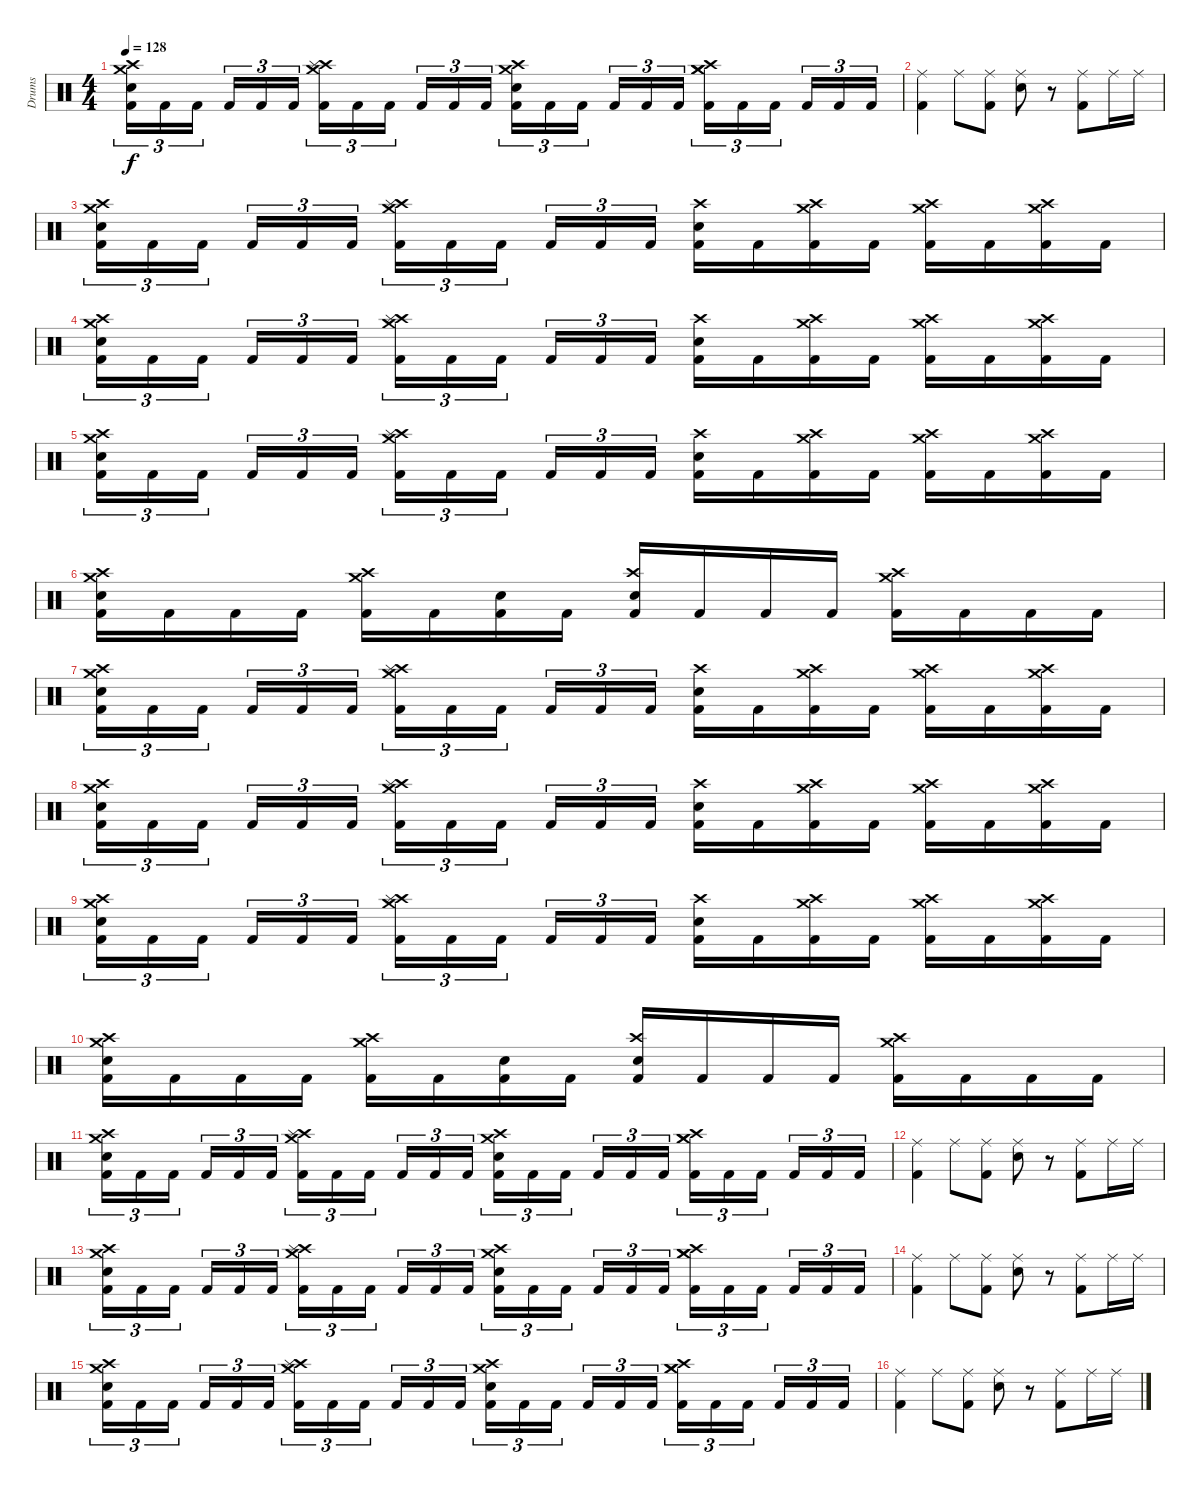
\track ("Drums" "Drums") {instrument percussion}
\staff {score}
\articulation defaults
\ts (4 4)
\tempo 128
\clef neutral
\ks c
("Crash medium (hit)" "Snare (hit) 2" "Crash high (hit)" "Kick (hit) 2").16{tu (3 2) dy f} "Kick (hit) 2".16{tu (3 2)} "Kick (hit) 2".16{tu (3 2)} "Kick (hit) 2".16{tu (3 2)} "Kick (hit) 2".16{tu (3 2)} "Kick (hit) 2".16{tu (3 2)} ("Crash medium (hit)" "Crash high (hit)" "Splash (hit)" "Kick (hit) 2").16{tu (3 2)} "Kick (hit) 2".16{tu (3 2)} "Kick (hit) 2".16{tu (3 2)} "Kick (hit) 2".16{tu (3 2)} "Kick (hit) 2".16{tu (3 2)} "Kick (hit) 2".16{tu (3 2)} ("Crash high (hit)" "Snare (hit) 2" "Crash medium (hit)" "Kick (hit) 2").16{tu (3 2)} "Kick (hit) 2".16{tu (3 2)} "Kick (hit) 2".16{tu (3 2)} "Kick (hit) 2".16{tu (3 2)} "Kick (hit) 2".16{tu (3 2)} "Kick (hit) 2".16{tu (3 2)} ("Crash high (hit)" "Crash medium (hit)" "Crash medium (hit)" "Kick (hit) 2").16{tu (3 2)} "Kick (hit) 2".16{tu (3 2)} "Kick (hit) 2".16{tu (3 2)} "Kick (hit) 2".16{tu (3 2)} "Kick (hit) 2".16{tu (3 2)} "Kick (hit) 2".16{tu (3 2)} |
("Ride (middle)" "Kick (hit) 2").4 "Ride (middle)".8 ("Ride (middle)" "Kick (hit) 2").8 ("Ride (middle)" "Snare (hit) 2").8 r.8 ("Ride (middle)" "Kick (hit) 2").8 "Ride (middle)".16 "Ride (middle)".16 |
("Crash medium (hit)" "Snare (hit) 2" "Crash high (hit)" "Kick (hit) 2").16{tu (3 2)} "Kick (hit) 2".16{tu (3 2)} "Kick (hit) 2".16{tu (3 2)} "Kick (hit) 2".16{tu (3 2)} "Kick (hit) 2".16{tu (3 2)} "Kick (hit) 2".16{tu (3 2)} ("Crash medium (hit)" "Crash high (hit)" "Splash (hit)" "Kick (hit) 2").16{tu (3 2)} "Kick (hit) 2".16{tu (3 2)} "Kick (hit) 2".16{tu (3 2)} "Kick (hit) 2".16{tu (3 2)} "Kick (hit) 2".16{tu (3 2)} "Kick (hit) 2".16{tu (3 2)} ("Crash high (hit)" "Snare (hit) 2" "Kick (hit) 2").16 "Kick (hit) 2".16 ("Crash medium (hit)" "Crash high (hit)" "Kick (hit) 2").16 "Kick (hit) 2".16 ("Crash high (hit)" "Crash medium (hit)" "Kick (hit) 2").16 "Kick (hit) 2".16 ("Crash high (hit)" "Crash medium (hit)" "Kick (hit) 2").16 "Kick (hit) 2".16 |
("Crash medium (hit)" "Snare (hit) 2" "Crash high (hit)" "Kick (hit) 2").16{tu (3 2)} "Kick (hit) 2".16{tu (3 2)} "Kick (hit) 2".16{tu (3 2)} "Kick (hit) 2".16{tu (3 2)} "Kick (hit) 2".16{tu (3 2)} "Kick (hit) 2".16{tu (3 2)} ("Crash medium (hit)" "Crash high (hit)" "Splash (hit)" "Kick (hit) 2").16{tu (3 2)} "Kick (hit) 2".16{tu (3 2)} "Kick (hit) 2".16{tu (3 2)} "Kick (hit) 2".16{tu (3 2)} "Kick (hit) 2".16{tu (3 2)} "Kick (hit) 2".16{tu (3 2)} ("Crash high (hit)" "Snare (hit) 2" "Kick (hit) 2").16 "Kick (hit) 2".16 ("Crash medium (hit)" "Crash high (hit)" "Kick (hit) 2").16 "Kick (hit) 2".16 ("Crash high (hit)" "Crash medium (hit)" "Kick (hit) 2").16 "Kick (hit) 2".16 ("Crash high (hit)" "Crash medium (hit)" "Kick (hit) 2").16 "Kick (hit) 2".16 |
("Crash medium (hit)" "Snare (hit) 2" "Crash high (hit)" "Kick (hit) 2").16{tu (3 2)} "Kick (hit) 2".16{tu (3 2)} "Kick (hit) 2".16{tu (3 2)} "Kick (hit) 2".16{tu (3 2)} "Kick (hit) 2".16{tu (3 2)} "Kick (hit) 2".16{tu (3 2)} ("Crash medium (hit)" "Crash high (hit)" "Splash (hit)" "Kick (hit) 2").16{tu (3 2)} "Kick (hit) 2".16{tu (3 2)} "Kick (hit) 2".16{tu (3 2)} "Kick (hit) 2".16{tu (3 2)} "Kick (hit) 2".16{tu (3 2)} "Kick (hit) 2".16{tu (3 2)} ("Crash high (hit)" "Snare (hit) 2" "Kick (hit) 2").16 "Kick (hit) 2".16 ("Crash medium (hit)" "Crash high (hit)" "Kick (hit) 2").16 "Kick (hit) 2".16 ("Crash high (hit)" "Crash medium (hit)" "Kick (hit) 2").16 "Kick (hit) 2".16 ("Crash high (hit)" "Crash medium (hit)" "Kick (hit) 2").16 "Kick (hit) 2".16 |
("Crash medium (hit)" "Snare (hit) 2" "Crash high (hit)" "Kick (hit) 2").16 "Kick (hit) 2".16 "Kick (hit) 2".16 "Kick (hit) 2".16 ("Crash medium (hit)" "Crash high (hit)" "Kick (hit) 2").16 "Kick (hit) 2".16 ("Snare (hit) 2" "Kick (hit) 2").16 "Kick (hit) 2".16 ("Snare (hit) 2" "Crash high (hit)" "Kick (hit) 2").16 "Kick (hit) 2".16 "Kick (hit) 2".16 "Kick (hit) 2".16 ("Crash high (hit)" "Crash medium (hit)" "Kick (hit) 2").16 "Kick (hit) 2".16 "Kick (hit) 2".16 "Kick (hit) 2".16 |
("Crash medium (hit)" "Snare (hit) 2" "Crash high (hit)" "Kick (hit) 2").16{tu (3 2)} "Kick (hit) 2".16{tu (3 2)} "Kick (hit) 2".16{tu (3 2)} "Kick (hit) 2".16{tu (3 2)} "Kick (hit) 2".16{tu (3 2)} "Kick (hit) 2".16{tu (3 2)} ("Crash medium (hit)" "Crash high (hit)" "Splash (hit)" "Kick (hit) 2").16{tu (3 2)} "Kick (hit) 2".16{tu (3 2)} "Kick (hit) 2".16{tu (3 2)} "Kick (hit) 2".16{tu (3 2)} "Kick (hit) 2".16{tu (3 2)} "Kick (hit) 2".16{tu (3 2)} ("Crash high (hit)" "Snare (hit) 2" "Kick (hit) 2").16 "Kick (hit) 2".16 ("Crash medium (hit)" "Crash high (hit)" "Kick (hit) 2").16 "Kick (hit) 2".16 ("Crash high (hit)" "Crash medium (hit)" "Kick (hit) 2").16 "Kick (hit) 2".16 ("Crash high (hit)" "Crash medium (hit)" "Kick (hit) 2").16 "Kick (hit) 2".16 |
("Crash medium (hit)" "Snare (hit) 2" "Crash high (hit)" "Kick (hit) 2").16{tu (3 2)} "Kick (hit) 2".16{tu (3 2)} "Kick (hit) 2".16{tu (3 2)} "Kick (hit) 2".16{tu (3 2)} "Kick (hit) 2".16{tu (3 2)} "Kick (hit) 2".16{tu (3 2)} ("Crash medium (hit)" "Crash high (hit)" "Splash (hit)" "Kick (hit) 2").16{tu (3 2)} "Kick (hit) 2".16{tu (3 2)} "Kick (hit) 2".16{tu (3 2)} "Kick (hit) 2".16{tu (3 2)} "Kick (hit) 2".16{tu (3 2)} "Kick (hit) 2".16{tu (3 2)} ("Crash high (hit)" "Snare (hit) 2" "Kick (hit) 2").16 "Kick (hit) 2".16 ("Crash medium (hit)" "Crash high (hit)" "Kick (hit) 2").16 "Kick (hit) 2".16 ("Crash high (hit)" "Crash medium (hit)" "Kick (hit) 2").16 "Kick (hit) 2".16 ("Crash high (hit)" "Crash medium (hit)" "Kick (hit) 2").16 "Kick (hit) 2".16 |
("Crash medium (hit)" "Snare (hit) 2" "Crash high (hit)" "Kick (hit) 2").16{tu (3 2)} "Kick (hit) 2".16{tu (3 2)} "Kick (hit) 2".16{tu (3 2)} "Kick (hit) 2".16{tu (3 2)} "Kick (hit) 2".16{tu (3 2)} "Kick (hit) 2".16{tu (3 2)} ("Crash medium (hit)" "Crash high (hit)" "Splash (hit)" "Kick (hit) 2").16{tu (3 2)} "Kick (hit) 2".16{tu (3 2)} "Kick (hit) 2".16{tu (3 2)} "Kick (hit) 2".16{tu (3 2)} "Kick (hit) 2".16{tu (3 2)} "Kick (hit) 2".16{tu (3 2)} ("Crash high (hit)" "Snare (hit) 2" "Kick (hit) 2").16 "Kick (hit) 2".16 ("Crash medium (hit)" "Crash high (hit)" "Kick (hit) 2").16 "Kick (hit) 2".16 ("Crash high (hit)" "Crash medium (hit)" "Kick (hit) 2").16 "Kick (hit) 2".16 ("Crash high (hit)" "Crash medium (hit)" "Kick (hit) 2").16 "Kick (hit) 2".16 |
("Crash medium (hit)" "Snare (hit) 2" "Crash high (hit)" "Kick (hit) 2").16 "Kick (hit) 2".16 "Kick (hit) 2".16 "Kick (hit) 2".16 ("Crash medium (hit)" "Crash high (hit)" "Kick (hit) 2").16 "Kick (hit) 2".16 ("Snare (hit) 2" "Kick (hit) 2").16 "Kick (hit) 2".16 ("Snare (hit) 2" "Crash high (hit)" "Kick (hit) 2").16 "Kick (hit) 2".16 "Kick (hit) 2".16 "Kick (hit) 2".16 ("Crash high (hit)" "Crash medium (hit)" "Kick (hit) 2").16 "Kick (hit) 2".16 "Kick (hit) 2".16 "Kick (hit) 2".16 |
("Crash medium (hit)" "Snare (hit) 2" "Crash high (hit)" "Kick (hit) 2").16{tu (3 2)} "Kick (hit) 2".16{tu (3 2)} "Kick (hit) 2".16{tu (3 2)} "Kick (hit) 2".16{tu (3 2)} "Kick (hit) 2".16{tu (3 2)} "Kick (hit) 2".16{tu (3 2)} ("Crash medium (hit)" "Crash high (hit)" "Splash (hit)" "Kick (hit) 2").16{tu (3 2)} "Kick (hit) 2".16{tu (3 2)} "Kick (hit) 2".16{tu (3 2)} "Kick (hit) 2".16{tu (3 2)} "Kick (hit) 2".16{tu (3 2)} "Kick (hit) 2".16{tu (3 2)} ("Crash high (hit)" "Snare (hit) 2" "Crash medium (hit)" "Kick (hit) 2").16{tu (3 2)} "Kick (hit) 2".16{tu (3 2)} "Kick (hit) 2".16{tu (3 2)} "Kick (hit) 2".16{tu (3 2)} "Kick (hit) 2".16{tu (3 2)} "Kick (hit) 2".16{tu (3 2)} ("Crash high (hit)" "Crash medium (hit)" "Crash medium (hit)" "Kick (hit) 2").16{tu (3 2)} "Kick (hit) 2".16{tu (3 2)} "Kick (hit) 2".16{tu (3 2)} "Kick (hit) 2".16{tu (3 2)} "Kick (hit) 2".16{tu (3 2)} "Kick (hit) 2".16{tu (3 2)} |
("Ride (middle)" "Kick (hit) 2").4 "Ride (middle)".8 ("Ride (middle)" "Kick (hit) 2").8 ("Ride (middle)" "Snare (hit) 2").8 r.8 ("Ride (middle)" "Kick (hit) 2").8 "Ride (middle)".16 "Ride (middle)".16 |
("Crash medium (hit)" "Snare (hit) 2" "Crash high (hit)" "Kick (hit) 2").16{tu (3 2)} "Kick (hit) 2".16{tu (3 2)} "Kick (hit) 2".16{tu (3 2)} "Kick (hit) 2".16{tu (3 2)} "Kick (hit) 2".16{tu (3 2)} "Kick (hit) 2".16{tu (3 2)} ("Crash medium (hit)" "Crash high (hit)" "Splash (hit)" "Kick (hit) 2").16{tu (3 2)} "Kick (hit) 2".16{tu (3 2)} "Kick (hit) 2".16{tu (3 2)} "Kick (hit) 2".16{tu (3 2)} "Kick (hit) 2".16{tu (3 2)} "Kick (hit) 2".16{tu (3 2)} ("Crash high (hit)" "Snare (hit) 2" "Crash medium (hit)" "Kick (hit) 2").16{tu (3 2)} "Kick (hit) 2".16{tu (3 2)} "Kick (hit) 2".16{tu (3 2)} "Kick (hit) 2".16{tu (3 2)} "Kick (hit) 2".16{tu (3 2)} "Kick (hit) 2".16{tu (3 2)} ("Crash high (hit)" "Crash medium (hit)" "Crash medium (hit)" "Kick (hit) 2").16{tu (3 2)} "Kick (hit) 2".16{tu (3 2)} "Kick (hit) 2".16{tu (3 2)} "Kick (hit) 2".16{tu (3 2)} "Kick (hit) 2".16{tu (3 2)} "Kick (hit) 2".16{tu (3 2)} |
("Ride (middle)" "Kick (hit) 2").4 "Ride (middle)".8 ("Ride (middle)" "Kick (hit) 2").8 ("Ride (middle)" "Snare (hit) 2").8 r.8 ("Ride (middle)" "Kick (hit) 2").8 "Ride (middle)".16 "Ride (middle)".16 |
("Crash medium (hit)" "Snare (hit) 2" "Crash high (hit)" "Kick (hit) 2").16{tu (3 2)} "Kick (hit) 2".16{tu (3 2)} "Kick (hit) 2".16{tu (3 2)} "Kick (hit) 2".16{tu (3 2)} "Kick (hit) 2".16{tu (3 2)} "Kick (hit) 2".16{tu (3 2)} ("Crash medium (hit)" "Crash high (hit)" "Splash (hit)" "Kick (hit) 2").16{tu (3 2)} "Kick (hit) 2".16{tu (3 2)} "Kick (hit) 2".16{tu (3 2)} "Kick (hit) 2".16{tu (3 2)} "Kick (hit) 2".16{tu (3 2)} "Kick (hit) 2".16{tu (3 2)} ("Crash high (hit)" "Snare (hit) 2" "Crash medium (hit)" "Kick (hit) 2").16{tu (3 2)} "Kick (hit) 2".16{tu (3 2)} "Kick (hit) 2".16{tu (3 2)} "Kick (hit) 2".16{tu (3 2)} "Kick (hit) 2".16{tu (3 2)} "Kick (hit) 2".16{tu (3 2)} ("Crash high (hit)" "Crash medium (hit)" "Crash medium (hit)" "Kick (hit) 2").16{tu (3 2)} "Kick (hit) 2".16{tu (3 2)} "Kick (hit) 2".16{tu (3 2)} "Kick (hit) 2".16{tu (3 2)} "Kick (hit) 2".16{tu (3 2)} "Kick (hit) 2".16{tu (3 2)} |
("Ride (middle)" "Kick (hit) 2").4 "Ride (middle)".8 ("Ride (middle)" "Kick (hit) 2").8 ("Ride (middle)" "Snare (hit) 2").8 r.8 ("Ride (middle)" "Kick (hit) 2").8 "Ride (middle)".16 "Ride (middle)".16
